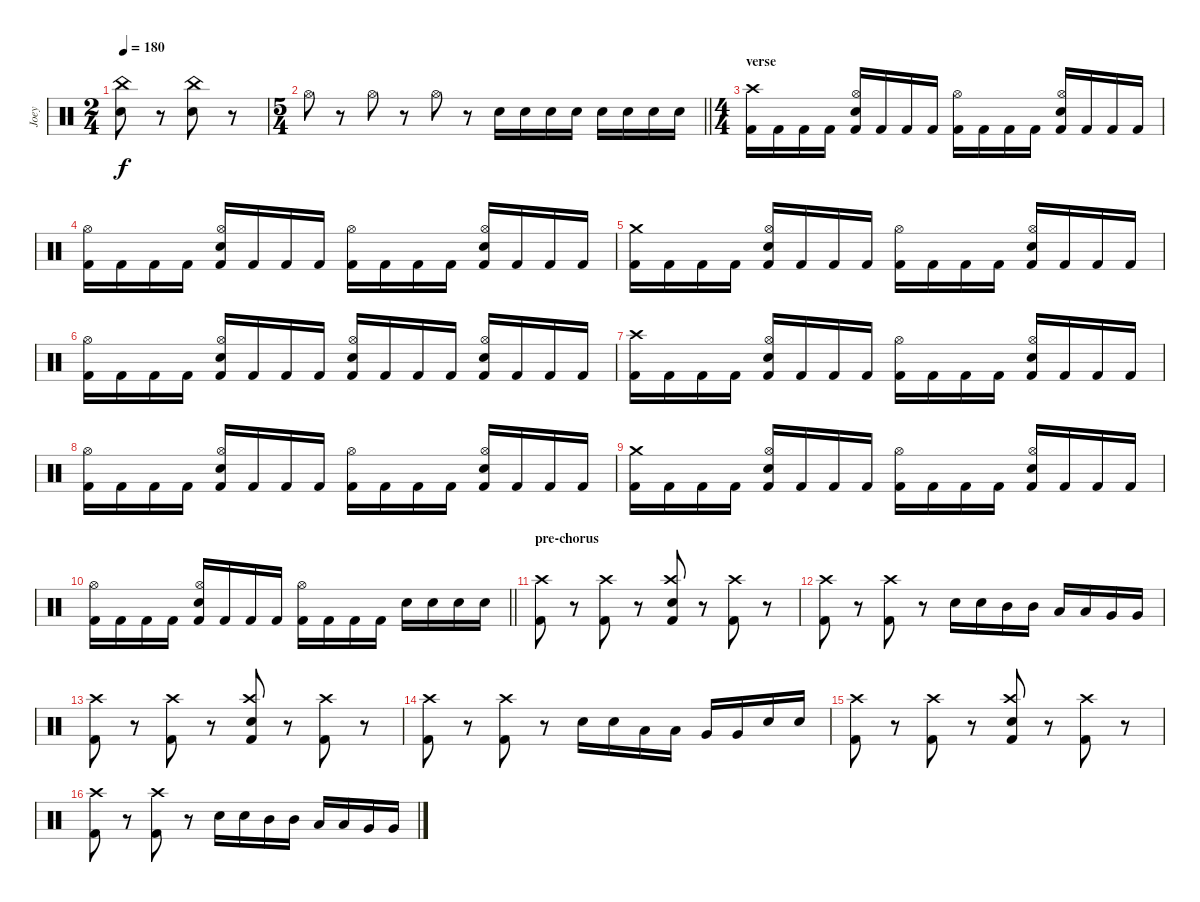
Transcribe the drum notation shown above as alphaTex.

\track ("Joey" "Joey") {instrument percussion}
\staff {score}
\articulation defaults
\ts (2 4)
\tempo 180
\clef neutral
\ks c
("China (hit)" "Electric Snare (hit)").8{dy f} r.8 ("China (hit)" "Electric Snare (hit)").8 r.8 |
\ts (5 4)
\barLineRight lightlight "Hi-Hat (open)".8
r.8 "Hi-Hat (open)".8 r.8 "Hi-Hat (open)".8 r.8 "Electric Snare (hit)".16 "Electric Snare (hit)".16 "Electric Snare (hit)".16 "Electric Snare (hit)".16 "Electric Snare (hit)".16 "Electric Snare (hit)".16 "Electric Snare (hit)".16 "Electric Snare (hit)".16 |
\ts (4 4)
\section ("" "verse")
("Crash high (hit)" "Kick (hit) 2").16 "Kick (hit) 2".16 "Kick (hit) 2".16 "Kick (hit) 2".16 ("Hi-Hat (open)" "Electric Snare (hit)" "Kick (hit) 2").16 "Kick (hit) 2".16 "Kick (hit) 2".16 "Kick (hit) 2".16 ("Hi-Hat (open)" "Kick (hit) 2").16 "Kick (hit) 2".16 "Kick (hit) 2".16 "Kick (hit) 2".16 ("Hi-Hat (open)" "Electric Snare (hit)" "Kick (hit) 2").16 "Kick (hit) 2".16 "Kick (hit) 2".16 "Kick (hit) 2".16 |
("Hi-Hat (open)" "Kick (hit) 2").16 "Kick (hit) 2".16 "Kick (hit) 2".16 "Kick (hit) 2".16 ("Hi-Hat (open)" "Electric Snare (hit)" "Kick (hit) 2").16 "Kick (hit) 2".16 "Kick (hit) 2".16 "Kick (hit) 2".16 ("Hi-Hat (open)" "Kick (hit) 2").16 "Kick (hit) 2".16 "Kick (hit) 2".16 "Kick (hit) 2".16 ("Hi-Hat (open)" "Electric Snare (hit)" "Kick (hit) 2").16 "Kick (hit) 2".16 "Kick (hit) 2".16 "Kick (hit) 2".16 |
("Crash medium (hit)" "Kick (hit) 2").16 "Kick (hit) 2".16 "Kick (hit) 2".16 "Kick (hit) 2".16 ("Hi-Hat (open)" "Electric Snare (hit)" "Kick (hit) 2").16 "Kick (hit) 2".16 "Kick (hit) 2".16 "Kick (hit) 2".16 ("Hi-Hat (open)" "Kick (hit) 2").16 "Kick (hit) 2".16 "Kick (hit) 2".16 "Kick (hit) 2".16 ("Hi-Hat (open)" "Electric Snare (hit)" "Kick (hit) 2").16 "Kick (hit) 2".16 "Kick (hit) 2".16 "Kick (hit) 2".16 |
("Hi-Hat (open)" "Kick (hit) 2").16 "Kick (hit) 2".16 "Kick (hit) 2".16 "Kick (hit) 2".16 ("Hi-Hat (open)" "Electric Snare (hit)" "Kick (hit) 2").16 "Kick (hit) 2".16 "Kick (hit) 2".16 "Kick (hit) 2".16 ("Hi-Hat (open)" "Electric Snare (hit)" "Kick (hit) 2").16 "Kick (hit) 2".16 "Kick (hit) 2".16 "Kick (hit) 2".16 ("Hi-Hat (open)" "Electric Snare (hit)" "Kick (hit) 2").16 "Kick (hit) 2".16 "Kick (hit) 2".16 "Kick (hit) 2".16 |
("Crash high (hit)" "Kick (hit) 2").16 "Kick (hit) 2".16 "Kick (hit) 2".16 "Kick (hit) 2".16 ("Hi-Hat (open)" "Electric Snare (hit)" "Kick (hit) 2").16 "Kick (hit) 2".16 "Kick (hit) 2".16 "Kick (hit) 2".16 ("Hi-Hat (open)" "Kick (hit) 2").16 "Kick (hit) 2".16 "Kick (hit) 2".16 "Kick (hit) 2".16 ("Hi-Hat (open)" "Electric Snare (hit)" "Kick (hit) 2").16 "Kick (hit) 2".16 "Kick (hit) 2".16 "Kick (hit) 2".16 |
("Hi-Hat (open)" "Kick (hit) 2").16 "Kick (hit) 2".16 "Kick (hit) 2".16 "Kick (hit) 2".16 ("Hi-Hat (open)" "Electric Snare (hit)" "Kick (hit) 2").16 "Kick (hit) 2".16 "Kick (hit) 2".16 "Kick (hit) 2".16 ("Hi-Hat (open)" "Kick (hit) 2").16 "Kick (hit) 2".16 "Kick (hit) 2".16 "Kick (hit) 2".16 ("Hi-Hat (open)" "Electric Snare (hit)" "Kick (hit) 2").16 "Kick (hit) 2".16 "Kick (hit) 2".16 "Kick (hit) 2".16 |
("Crash medium (hit)" "Kick (hit) 2").16 "Kick (hit) 2".16 "Kick (hit) 2".16 "Kick (hit) 2".16 ("Hi-Hat (open)" "Electric Snare (hit)" "Kick (hit) 2").16 "Kick (hit) 2".16 "Kick (hit) 2".16 "Kick (hit) 2".16 ("Hi-Hat (open)" "Kick (hit) 2").16 "Kick (hit) 2".16 "Kick (hit) 2".16 "Kick (hit) 2".16 ("Hi-Hat (open)" "Electric Snare (hit)" "Kick (hit) 2").16 "Kick (hit) 2".16 "Kick (hit) 2".16 "Kick (hit) 2".16 |
\barLineRight lightlight
("Hi-Hat (open)" "Kick (hit) 2").16 "Kick (hit) 2".16 "Kick (hit) 2".16 "Kick (hit) 2".16 ("Hi-Hat (open)" "Electric Snare (hit)" "Kick (hit) 2").16 "Kick (hit) 2".16 "Kick (hit) 2".16 "Kick (hit) 2".16 ("Hi-Hat (open)" "Kick (hit) 2").16 "Kick (hit) 2".16 "Kick (hit) 2".16 "Kick (hit) 2".16 "Electric Snare (hit)".16 "Electric Snare (hit)".16 "Electric Snare (hit)".16 "Electric Snare (hit)".16 |
\section ("" "pre-chorus")
("Crash high (hit)" "Kick (hit) 2").8 r.8 ("Crash high (hit)" "Kick (hit) 2").8 r.8 ("Crash high (hit)" "Electric Snare (hit)" "Kick (hit) 2").8 r.8 ("Crash high (hit)" "Kick (hit) 2").8 r.8 |
("Crash high (hit)" "Kick (hit) 2").8 r.8 ("Crash high (hit)" "Kick (hit) 2").8 r.8 "Electric Snare (hit)".16 "Electric Snare (hit)".16 "Mid Tom (hit)".16 "Mid Tom (hit)".16 "Low Tom (hit)".16 "Low Tom (hit)".16 "Very Low Tom (hit)".16 "Very Low Tom (hit)".16 |
("Crash high (hit)" "Kick (hit) 2").8 r.8 ("Crash high (hit)" "Kick (hit) 2").8 r.8 ("Crash high (hit)" "Electric Snare (hit)" "Kick (hit) 2").8 r.8 ("Crash high (hit)" "Kick (hit) 2").8 r.8 |
("Crash high (hit)" "Kick (hit) 2").8 r.8 ("Crash high (hit)" "Kick (hit) 2").8 r.8 "Electric Snare (hit)".16 "Electric Snare (hit)".16 "Low Tom (hit)".16 "Low Tom (hit)".16 "Very Low Tom (hit)".16 "Very Low Tom (hit)".16 "Electric Snare (hit)".16 "Electric Snare (hit)".16 |
("Crash high (hit)" "Kick (hit) 2").8 r.8 ("Crash high (hit)" "Kick (hit) 2").8 r.8 ("Crash high (hit)" "Electric Snare (hit)" "Kick (hit) 2").8 r.8 ("Crash high (hit)" "Kick (hit) 2").8 r.8 |
("Crash high (hit)" "Kick (hit) 2").8 r.8 ("Crash high (hit)" "Kick (hit) 2").8 r.8 "Electric Snare (hit)".16 "Electric Snare (hit)".16 "Mid Tom (hit)".16 "Mid Tom (hit)".16 "Low Tom (hit)".16 "Low Tom (hit)".16 "Very Low Tom (hit)".16 "Very Low Tom (hit)".16
